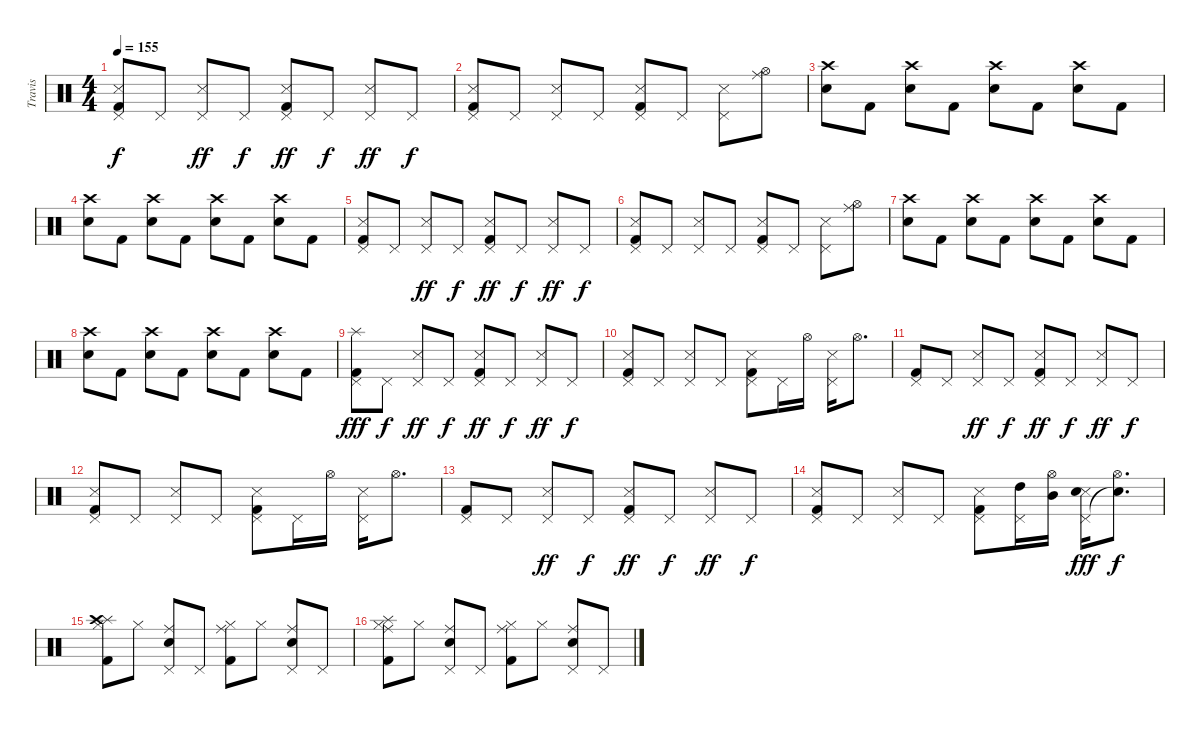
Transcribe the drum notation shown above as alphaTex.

\track ("Travis" "Travis") {instrument percussion}
\staff {score}
\articulation defaults
\ts (4 4)
\tempo 155
\clef neutral
\ks c
("Metronome (hit)" "Pedal Hi-Hat (hit)" "Kick (hit) 2").8{dy f} "Pedal Hi-Hat (hit)".8 ("Metronome (hit)" "Pedal Hi-Hat (hit)").8{dy ff} "Pedal Hi-Hat (hit)".8{dy f} ("Metronome (hit)" "Pedal Hi-Hat (hit)" "Kick (hit) 2").8{dy ff} "Pedal Hi-Hat (hit)".8{dy f} ("Metronome (hit)" "Pedal Hi-Hat (hit)").8{dy ff} "Pedal Hi-Hat (hit)".8{dy f} |
("Metronome (hit)" "Pedal Hi-Hat (hit)" "Kick (hit) 2").8 "Pedal Hi-Hat (hit)".8 ("Metronome (hit)" "Pedal Hi-Hat (hit)").8 "Pedal Hi-Hat (hit)".8 ("Metronome (hit)" "Pedal Hi-Hat (hit)" "Kick (hit) 2").8 "Pedal Hi-Hat (hit)".8 ("Metronome (hit)" "Pedal Hi-Hat (hit)").8 ("Hi-Hat (open)" "Ride (middle)").8 |
("Electric Snare (hit)" "Crash high (hit)").8 "Kick (hit) 2".8 ("Electric Snare (hit)" "Crash high (hit)").8 "Kick (hit) 2".8 ("Electric Snare (hit)" "Crash high (hit)").8 "Kick (hit) 2".8 ("Electric Snare (hit)" "Crash high (hit)").8 "Kick (hit) 2".8 |
("Electric Snare (hit)" "Crash high (hit)").8 "Kick (hit) 2".8 ("Electric Snare (hit)" "Crash high (hit)").8 "Kick (hit) 2".8 ("Electric Snare (hit)" "Crash high (hit)").8 "Kick (hit) 2".8 ("Electric Snare (hit)" "Crash high (hit)").8 "Kick (hit) 2".8 |
("Metronome (hit)" "Pedal Hi-Hat (hit)" "Kick (hit) 2").8 "Pedal Hi-Hat (hit)".8 ("Metronome (hit)" "Pedal Hi-Hat (hit)").8{dy ff} "Pedal Hi-Hat (hit)".8{dy f} ("Metronome (hit)" "Pedal Hi-Hat (hit)" "Kick (hit) 2").8{dy ff} "Pedal Hi-Hat (hit)".8{dy f} ("Metronome (hit)" "Pedal Hi-Hat (hit)").8{dy ff} "Pedal Hi-Hat (hit)".8{dy f} |
("Metronome (hit)" "Pedal Hi-Hat (hit)" "Kick (hit) 2").8 "Pedal Hi-Hat (hit)".8 ("Metronome (hit)" "Pedal Hi-Hat (hit)").8 "Pedal Hi-Hat (hit)".8 ("Metronome (hit)" "Pedal Hi-Hat (hit)" "Kick (hit) 2").8 "Pedal Hi-Hat (hit)".8 ("Metronome (hit)" "Pedal Hi-Hat (hit)").8 ("Hi-Hat (open)" "Ride (middle)").8 |
("Electric Snare (hit)" "Crash high (hit)").8 "Kick (hit) 2".8 ("Electric Snare (hit)" "Crash high (hit)").8 "Kick (hit) 2".8 ("Electric Snare (hit)" "Crash high (hit)").8 "Kick (hit) 2".8 ("Electric Snare (hit)" "Crash high (hit)").8 "Kick (hit) 2".8 |
("Electric Snare (hit)" "Crash high (hit)").8 "Kick (hit) 2".8 ("Electric Snare (hit)" "Crash high (hit)").8 "Kick (hit) 2".8 ("Electric Snare (hit)" "Crash high (hit)").8 "Kick (hit) 2".8 ("Electric Snare (hit)" "Crash high (hit)").8 "Kick (hit) 2".8 |
("Splash (hit)" "Pedal Hi-Hat (hit)" "Kick (hit) 2").8{dy fff} "Pedal Hi-Hat (hit)".8{dy f} ("Metronome (hit)" "Pedal Hi-Hat (hit)").8{dy ff} "Pedal Hi-Hat (hit)".8{dy f} ("Metronome (hit)" "Pedal Hi-Hat (hit)" "Kick (hit) 2").8{dy ff} "Pedal Hi-Hat (hit)".8{dy f} ("Metronome (hit)" "Pedal Hi-Hat (hit)").8{dy ff} "Pedal Hi-Hat (hit)".8{dy f} |
("Metronome (hit)" "Pedal Hi-Hat (hit)" "Kick (hit) 2").8 "Pedal Hi-Hat (hit)".8 ("Metronome (hit)" "Pedal Hi-Hat (hit)").8 "Pedal Hi-Hat (hit)".8 ("Metronome (hit)" "Pedal Hi-Hat (hit)" "Kick (hit) 2").8 "Pedal Hi-Hat (hit)".16 "Hi-Hat (open)".16 ("Metronome (hit)" "Pedal Hi-Hat (hit)").16 "Hi-Hat (open)".8{d} |
("Pedal Hi-Hat (hit)" "Kick (hit) 2").8 "Pedal Hi-Hat (hit)".8 ("Metronome (hit)" "Pedal Hi-Hat (hit)").8{dy ff} "Pedal Hi-Hat (hit)".8{dy f} ("Metronome (hit)" "Pedal Hi-Hat (hit)" "Kick (hit) 2").8{dy ff} "Pedal Hi-Hat (hit)".8{dy f} ("Metronome (hit)" "Pedal Hi-Hat (hit)").8{dy ff} "Pedal Hi-Hat (hit)".8{dy f} |
("Metronome (hit)" "Pedal Hi-Hat (hit)" "Kick (hit) 2").8 "Pedal Hi-Hat (hit)".8 ("Metronome (hit)" "Pedal Hi-Hat (hit)").8 "Pedal Hi-Hat (hit)".8 ("Metronome (hit)" "Pedal Hi-Hat (hit)" "Kick (hit) 2").8 "Pedal Hi-Hat (hit)".16 "Hi-Hat (open)".16 ("Metronome (hit)" "Pedal Hi-Hat (hit)").16 "Hi-Hat (open)".8{d} |
("Pedal Hi-Hat (hit)" "Kick (hit) 2").8 "Pedal Hi-Hat (hit)".8 ("Metronome (hit)" "Pedal Hi-Hat (hit)").8{dy ff} "Pedal Hi-Hat (hit)".8{dy f} ("Metronome (hit)" "Pedal Hi-Hat (hit)" "Kick (hit) 2").8{dy ff} "Pedal Hi-Hat (hit)".8{dy f} ("Metronome (hit)" "Pedal Hi-Hat (hit)").8{dy ff} "Pedal Hi-Hat (hit)".8{dy f} |
("Metronome (hit)" "Pedal Hi-Hat (hit)" "Kick (hit) 2").8 "Pedal Hi-Hat (hit)".8 ("Metronome (hit)" "Pedal Hi-Hat (hit)").8 "Pedal Hi-Hat (hit)".8 ("Metronome (hit)" "Pedal Hi-Hat (hit)" "Kick (hit) 2").8 ("Pedal Hi-Hat (hit)" "High Tom (hit)").16 ("Hi-Hat (open)" "Mid Tom (hit)").16 ("Metronome (hit)" "Pedal Hi-Hat (hit)" "Electric Snare (hit)").16{dy fff} ("Hi-Hat (open)" "Snare (hit)"{t}).8{d dy f} |
("Splash (hit)" "Hi-Hat (closed)" "Kick (hit) 2" "Crash high (hit)").8 "Hi-Hat (closed)".8 ("Electric Snare (hit)" "Pedal Hi-Hat (hit)" "Ride (middle)").8 "Pedal Hi-Hat (hit)".8 ("Hi-Hat (closed)" "Kick (hit) 2" "Ride (middle)").8 "Hi-Hat (closed)".8 ("Electric Snare (hit)" "Pedal Hi-Hat (hit)" "Ride (middle)").8 "Pedal Hi-Hat (hit)".8 |
("Splash (hit)" "Hi-Hat (closed)" "Kick (hit) 2" "Ride (middle)").8 "Hi-Hat (closed)".8 ("Electric Snare (hit)" "Pedal Hi-Hat (hit)" "Ride (middle)").8 "Pedal Hi-Hat (hit)".8 ("Hi-Hat (closed)" "Kick (hit) 2" "Ride (middle)").8 "Hi-Hat (closed)".8 ("Electric Snare (hit)" "Pedal Hi-Hat (hit)" "Ride (middle)").8 "Pedal Hi-Hat (hit)".8
